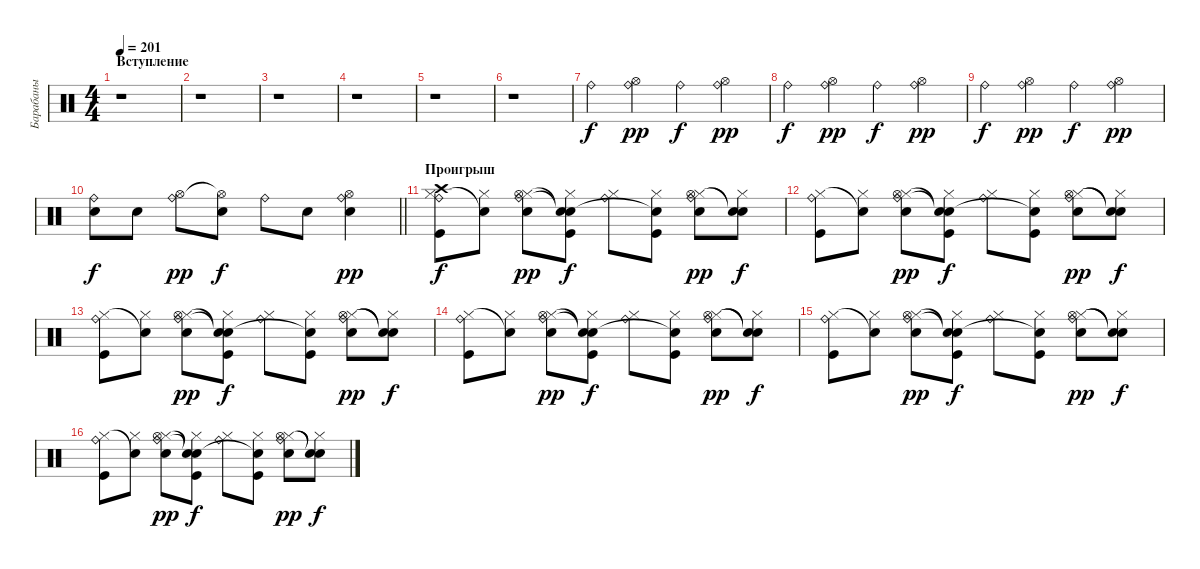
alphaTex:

\track ("Барабаны" "Барабаны") {instrument percussion}
\staff {score}
\articulation defaults
\ts (4 4)
\section ("" "Вступление")
\tempo 201
\clef neutral
\ks c
r.1{dy f} |
r.1 |
r.1 |
r.1 |
r.1 |
r.1 |
"Ride (bell)".4 ("Hi-Hat (open)" "Ride (bell)").4{dy pp} "Ride (bell)".4{dy f} ("Hi-Hat (open)" "Ride (bell)").4{dy pp} |
"Ride (bell)".4{dy f} ("Hi-Hat (open)" "Ride (bell)").4{dy pp} "Ride (bell)".4{dy f} ("Hi-Hat (open)" "Ride (bell)").4{dy pp} |
"Ride (bell)".4{dy f} ("Hi-Hat (open)" "Ride (bell)").4{dy pp} "Ride (bell)".4{dy f} ("Hi-Hat (open)" "Ride (bell)").4{dy pp} |
\barLineRight lightlight
("Snare (hit) 2" "Ride (bell)").8{dy f} "Snare (hit) 2".8 ("Hi-Hat (open)" "Ride (bell)").8{dy pp} ("Snare (hit) 2" "Hi-Hat (open)"{t}).8{dy f} "Ride (bell)".8 "Snare (hit) 2".8 ("Snare (hit) 2" "Hi-Hat (open)" "Ride (bell)").4{dy pp} |
\section ("" "Проигрыш")
("Kick (hit)" "Hi-Hat (closed)" "Crash high (hit)" "Ride (bell)").8{dy f} ("Hi-Hat (closed)" "Snare (hit)"{t}).8 ("Snare (hit) 2" "Hi-Hat (closed)" "Hi-Hat (open)" "Ride (bell)").8{dy pp} ("Kick (hit)" "Hi-Hat (closed)" "Snare (hit)"{t} "Snare (hit)"{t}).8{dy f} ("Hi-Hat (closed)" "Ride (bell)").8 ("Kick (hit)" "Hi-Hat (closed)" "Snare (hit)"{t}).8 ("Snare (hit) 2" "Hi-Hat (closed)" "Hi-Hat (open)" "Ride (bell)").8{dy pp} ("Hi-Hat (closed)" "Snare (hit)"{t} "Snare (hit)"{t}).8{dy f} |
("Kick (hit)" "Hi-Hat (closed)" "Ride (bell)").8 ("Hi-Hat (closed)" "Snare (hit)"{t}).8 ("Snare (hit) 2" "Hi-Hat (closed)" "Hi-Hat (open)" "Ride (bell)").8{dy pp} ("Kick (hit)" "Hi-Hat (closed)" "Snare (hit)"{t} "Snare (hit)"{t}).8{dy f} ("Hi-Hat (closed)" "Ride (bell)").8 ("Kick (hit)" "Hi-Hat (closed)" "Snare (hit)"{t}).8 ("Snare (hit) 2" "Hi-Hat (closed)" "Hi-Hat (open)" "Ride (bell)").8{dy pp} ("Hi-Hat (closed)" "Snare (hit)"{t} "Snare (hit)"{t}).8{dy f} |
("Kick (hit)" "Hi-Hat (closed)" "Ride (bell)").8 ("Hi-Hat (closed)" "Snare (hit)"{t}).8 ("Snare (hit) 2" "Hi-Hat (closed)" "Hi-Hat (open)" "Ride (bell)").8{dy pp} ("Kick (hit)" "Hi-Hat (closed)" "Snare (hit)"{t} "Snare (hit)"{t}).8{dy f} ("Hi-Hat (closed)" "Ride (bell)").8 ("Kick (hit)" "Hi-Hat (closed)" "Snare (hit)"{t}).8 ("Snare (hit) 2" "Hi-Hat (closed)" "Hi-Hat (open)" "Ride (bell)").8{dy pp} ("Hi-Hat (closed)" "Snare (hit)"{t} "Snare (hit)"{t}).8{dy f} |
("Kick (hit)" "Hi-Hat (closed)" "Ride (bell)").8 ("Hi-Hat (closed)" "Snare (hit)"{t}).8 ("Snare (hit) 2" "Hi-Hat (closed)" "Hi-Hat (open)" "Ride (bell)").8{dy pp} ("Kick (hit)" "Hi-Hat (closed)" "Snare (hit)"{t} "Snare (hit)"{t}).8{dy f} ("Hi-Hat (closed)" "Ride (bell)").8 ("Kick (hit)" "Hi-Hat (closed)" "Snare (hit)"{t}).8 ("Snare (hit) 2" "Hi-Hat (closed)" "Hi-Hat (open)" "Ride (bell)").8{dy pp} ("Hi-Hat (closed)" "Snare (hit)"{t} "Snare (hit)"{t}).8{dy f} |
("Kick (hit)" "Hi-Hat (closed)" "Ride (bell)").8 ("Hi-Hat (closed)" "Snare (hit)"{t}).8 ("Snare (hit) 2" "Hi-Hat (closed)" "Hi-Hat (open)" "Ride (bell)").8{dy pp} ("Kick (hit)" "Hi-Hat (closed)" "Snare (hit)"{t} "Snare (hit)"{t}).8{dy f} ("Hi-Hat (closed)" "Ride (bell)").8 ("Kick (hit)" "Hi-Hat (closed)" "Snare (hit)"{t}).8 ("Snare (hit) 2" "Hi-Hat (closed)" "Hi-Hat (open)" "Ride (bell)").8{dy pp} ("Hi-Hat (closed)" "Snare (hit)"{t} "Snare (hit)"{t}).8{dy f} |
("Kick (hit)" "Hi-Hat (closed)" "Ride (bell)").8 ("Hi-Hat (closed)" "Snare (hit)"{t}).8 ("Snare (hit) 2" "Hi-Hat (closed)" "Hi-Hat (open)" "Ride (bell)").8{dy pp} ("Kick (hit)" "Hi-Hat (closed)" "Snare (hit)"{t} "Snare (hit)"{t}).8{dy f} ("Hi-Hat (closed)" "Ride (bell)").8 ("Kick (hit)" "Hi-Hat (closed)" "Snare (hit)"{t}).8 ("Snare (hit) 2" "Hi-Hat (closed)" "Hi-Hat (open)" "Ride (bell)").8{dy pp} ("Hi-Hat (closed)" "Snare (hit)"{t} "Snare (hit)"{t}).8{dy f}
